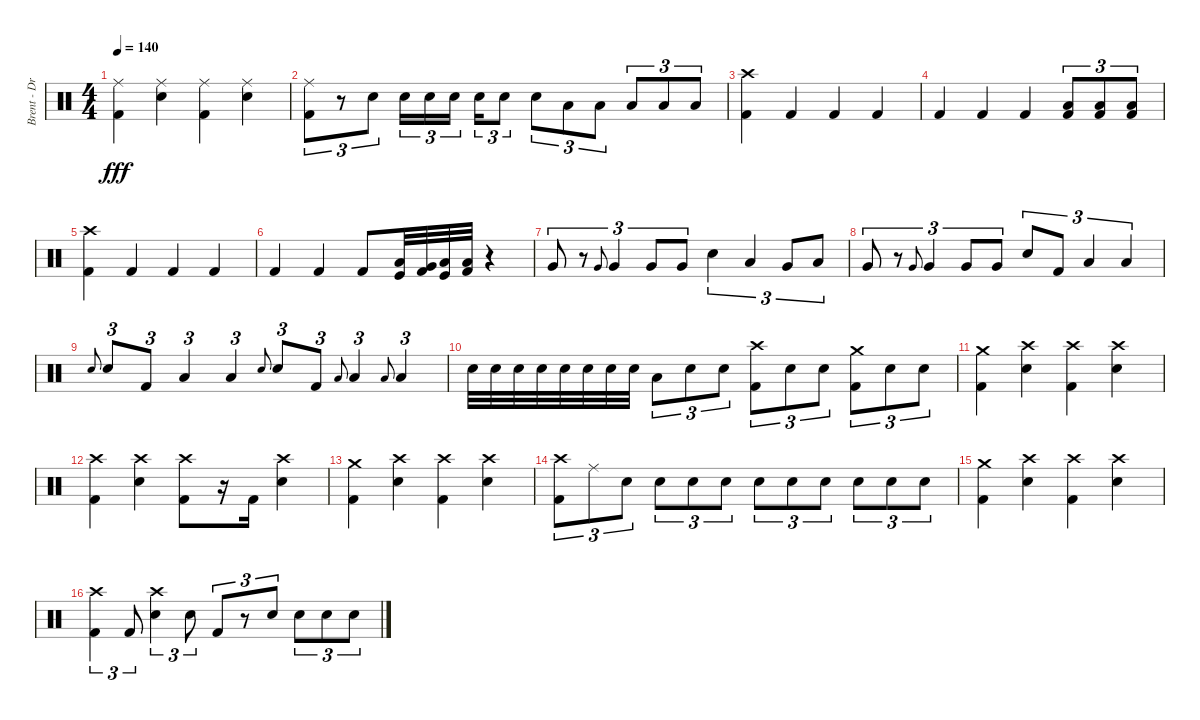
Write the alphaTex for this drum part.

\track ("Brent - Drums" "Brent - Dr") {instrument percussion}
\staff {score}
\articulation defaults
\ts (4 4)
\tempo 140
\clef neutral
\ks c
("Ride (middle)" "Kick (hit) 2").4{dy fff} ("Ride (middle)" "Snare (hit) 2").4 ("Ride (middle)" "Kick (hit) 2").4 ("Ride (middle)" "Snare (hit) 2").4 |
("Ride (middle)" "Kick (hit) 2").8{tu (3 2)} r.8{tu (3 2)} "Snare (hit) 2".8{tu (3 2)} "Snare (hit) 2".16{tu (3 2)} "Snare (hit) 2".16{tu (3 2)} "Snare (hit) 2".16{tu (3 2) beam splitsecondary} "Snare (hit) 2".16{tu (3 2)} "Snare (hit) 2".8{tu (3 2)} "Snare (hit) 2".8{tu (3 2)} "Low Tom (hit)".8{tu (3 2)} "Low Tom (hit)".8{tu (3 2)} "Low Tom (hit)".8{tu (3 2)} "Low Floor Tom (hit)".8{tu (3 2)} "Low Floor Tom (hit)".8{tu (3 2)} |
("Crash high (hit)" "Kick (hit) 2").4 "Kick (hit) 2".4 "Kick (hit) 2".4 "Kick (hit) 2".4 |
"Kick (hit) 2".4 "Kick (hit) 2".4 "Kick (hit) 2".4 ("Low Floor Tom (hit)" "Kick (hit) 2").8{tu (3 2)} ("Low Floor Tom (hit)" "Kick (hit) 2").8{tu (3 2)} ("Low Floor Tom (hit)" "Kick (hit) 2").8{tu (3 2)} |
("Crash high (hit)" "Kick (hit) 2").4 "Kick (hit) 2".4 "Kick (hit) 2".4 "Kick (hit) 2".4 |
"Kick (hit) 2".4 "Kick (hit) 2".4 "Kick (hit) 2".8 ("Low Tom (hit)" "Kick (hit)").32 ("Very Low Tom (hit)" "Kick (hit) 2").32 ("Low Floor Tom (hit)" "Kick (hit)").32 ("Low Floor Tom (hit)" "Kick (hit) 2").32 r.4 |
"Very Low Tom (hit)".8{tu (3 2)} r.8{tu (3 2)} "Very Low Tom (hit)".8{gr onbeat} "Very Low Tom (hit)".4{tu (3 2)} "Very Low Tom (hit)".8{tu (3 2)} "Very Low Tom (hit)".8{tu (3 2)} "Snare (hit) 2".4{tu (3 2)} "Low Tom (hit)".4{tu (3 2)} "Very Low Tom (hit)".8{tu (3 2)} "Low Floor Tom (hit)".8{tu (3 2)} |
"Very Low Tom (hit)".8{tu (3 2)} r.8{tu (3 2)} "Very Low Tom (hit)".8{gr onbeat} "Very Low Tom (hit)".4{tu (3 2)} "Very Low Tom (hit)".8{tu (3 2)} "Very Low Tom (hit)".8{tu (3 2)} "Snare (hit) 2".8{tu (3 2)} "Kick (hit) 2".8{tu (3 2)} "Low Tom (hit)".4{tu (3 2)} "Low Floor Tom (hit)".4{tu (3 2)} |
"Snare (hit) 2".8{gr onbeat} "Snare (hit) 2".8{tu (3 2)} "Kick (hit) 2".8{tu (3 2)} "Low Tom (hit)".4{tu (3 2)} "Low Floor Tom (hit)".4{tu (3 2)} "Snare (hit) 2".8{gr onbeat} "Snare (hit) 2".8{tu (3 2)} "Kick (hit) 2".8{tu (3 2)} "Low Tom (hit)".8{gr onbeat} "Low Tom (hit)".4{tu (3 2)} "Low Floor Tom (hit)".8{gr onbeat} "Low Floor Tom (hit)".4{tu (3 2)} |
"Snare (hit) 2".32 "Snare (hit) 2".32 "Snare (hit) 2".32 "Snare (hit) 2".32 "Snare (hit) 2".32 "Snare (hit) 2".32 "Snare (hit) 2".32 "Snare (hit) 2".32 "Low Tom (hit)".8{tu (3 2)} "Snare (hit) 2".8{tu (3 2)} "Snare (hit) 2".8{tu (3 2)} ("Crash high (hit)" "Kick (hit) 2").8{tu (3 2)} "Snare (hit) 2".8{tu (3 2)} "Snare (hit) 2".8{tu (3 2)} ("Crash medium (hit)" "Kick (hit) 2").8{tu (3 2)} "Snare (hit) 2".8{tu (3 2)} "Snare (hit) 2".8{tu (3 2)} |
("Crash medium (hit)" "Kick (hit) 2").4 ("Crash high (hit)" "Snare (hit) 2").4 ("Crash high (hit)" "Kick (hit) 2").4 ("Crash high (hit)" "Snare (hit) 2").4 |
("Crash high (hit)" "Kick (hit) 2").4 ("Crash high (hit)" "Snare (hit) 2").4 ("Crash high (hit)" "Kick (hit) 2").8 r.16 "Kick (hit) 2".16 ("Crash high (hit)" "Snare (hit) 2").4 |
("Crash medium (hit)" "Kick (hit) 2").4 ("Crash high (hit)" "Snare (hit) 2").4 ("Crash high (hit)" "Kick (hit) 2").4 ("Crash high (hit)" "Snare (hit) 2").4 |
("Crash high (hit)" "Kick (hit) 2").8{tu (3 2)} "Ride (middle)".8{tu (3 2)} "Snare (hit) 2".8{tu (3 2)} "Snare (hit) 2".8{tu (3 2)} "Snare (hit) 2".8{tu (3 2)} "Snare (hit) 2".8{tu (3 2)} "Snare (hit) 2".8{tu (3 2)} "Snare (hit) 2".8{tu (3 2)} "Snare (hit) 2".8{tu (3 2)} "Snare (hit) 2".8{tu (3 2)} "Snare (hit) 2".8{tu (3 2)} "Snare (hit) 2".8{tu (3 2)} |
("Crash medium (hit)" "Kick (hit) 2").4 ("Crash high (hit)" "Snare (hit) 2").4 ("Crash high (hit)" "Kick (hit) 2").4 ("Crash high (hit)" "Snare (hit) 2").4 |
("Crash high (hit)" "Kick (hit) 2").4{tu (3 2)} "Kick (hit) 2".8{tu (3 2)} ("Crash high (hit)" "Snare (hit) 2").4{tu (3 2)} "Snare (hit) 2".8{tu (3 2)} "Kick (hit) 2".8{tu (3 2)} r.8{tu (3 2)} "Snare (hit) 2".8{tu (3 2)} "Snare (hit) 2".8{tu (3 2)} "Snare (hit) 2".8{tu (3 2)} "Snare (hit) 2".8{tu (3 2)}
